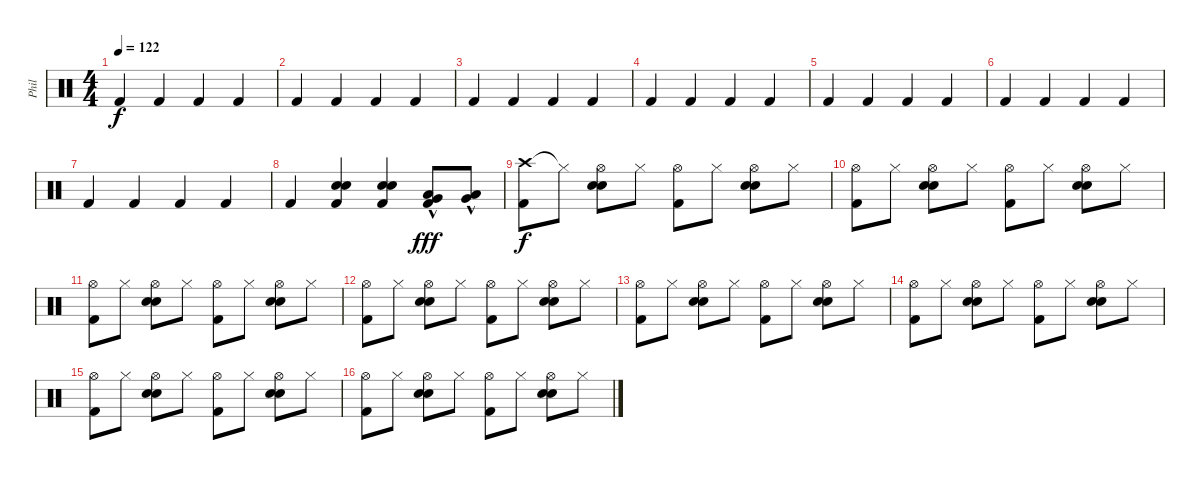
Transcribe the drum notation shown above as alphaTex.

\track ("Phil" "Phil") {instrument percussion}
\staff {score}
\articulation defaults
\ts (4 4)
\tempo 122
\clef neutral
\ks c "Kick (hit) 2".4{dy f} "Kick (hit) 2".4 "Kick (hit) 2".4 "Kick (hit) 2".4
|
"Kick (hit) 2".4 "Kick (hit) 2".4 "Kick (hit) 2".4 "Kick (hit) 2".4 |
"Kick (hit) 2".4 "Kick (hit) 2".4 "Kick (hit) 2".4 "Kick (hit) 2".4 |
"Kick (hit) 2".4 "Kick (hit) 2".4 "Kick (hit) 2".4 "Kick (hit) 2".4 |
"Kick (hit) 2".4 "Kick (hit) 2".4 "Kick (hit) 2".4 "Kick (hit) 2".4 |
"Kick (hit) 2".4 "Kick (hit) 2".4 "Kick (hit) 2".4 "Kick (hit) 2".4 |
"Kick (hit) 2".4 "Kick (hit) 2".4 "Kick (hit) 2".4 "Kick (hit) 2".4 |
"Kick (hit) 2".4 ("Snare (hit) 2" "Electric Snare (hit)" "Kick (hit) 2").4 ("Snare (hit) 2" "Electric Snare (hit)" "Kick (hit) 2").4 ("Very Low Tom (hit)"{hac} "Low Floor Tom (hit)"{hac} "Kick (hit) 2").8{dy fff} ("Very Low Tom (hit)"{hac} "Low Floor Tom (hit)"{hac}).8 |
("Crash high (hit)" "Kick (hit) 2").8{dy f} "Hi-Hat (closed)"{t}.8 ("Hi-Hat (open)" "Snare (hit) 2" "Electric Snare (hit)").8 "Hi-Hat (closed)".8 ("Hi-Hat (open)" "Kick (hit) 2").8 "Hi-Hat (closed)".8 ("Hi-Hat (open)" "Snare (hit) 2" "Electric Snare (hit)").8 "Hi-Hat (closed)".8 |
("Hi-Hat (open)" "Kick (hit) 2").8 "Hi-Hat (closed)".8 ("Hi-Hat (open)" "Snare (hit) 2" "Electric Snare (hit)").8 "Hi-Hat (closed)".8 ("Hi-Hat (open)" "Kick (hit) 2").8 "Hi-Hat (closed)".8 ("Hi-Hat (open)" "Snare (hit) 2" "Electric Snare (hit)").8 "Hi-Hat (closed)".8 |
("Hi-Hat (open)" "Kick (hit) 2").8 "Hi-Hat (closed)".8 ("Hi-Hat (open)" "Snare (hit) 2" "Electric Snare (hit)").8 "Hi-Hat (closed)".8 ("Hi-Hat (open)" "Kick (hit) 2").8 "Hi-Hat (closed)".8 ("Hi-Hat (open)" "Snare (hit) 2" "Electric Snare (hit)").8 "Hi-Hat (closed)".8 |
("Hi-Hat (open)" "Kick (hit) 2").8 "Hi-Hat (closed)".8 ("Hi-Hat (open)" "Snare (hit) 2" "Electric Snare (hit)").8 "Hi-Hat (closed)".8 ("Hi-Hat (open)" "Kick (hit) 2").8 "Hi-Hat (closed)".8 ("Hi-Hat (open)" "Snare (hit) 2" "Electric Snare (hit)").8 "Hi-Hat (closed)".8 |
("Hi-Hat (open)" "Kick (hit) 2").8 "Hi-Hat (closed)".8 ("Hi-Hat (open)" "Snare (hit) 2" "Electric Snare (hit)").8 "Hi-Hat (closed)".8 ("Hi-Hat (open)" "Kick (hit) 2").8 "Hi-Hat (closed)".8 ("Hi-Hat (open)" "Snare (hit) 2" "Electric Snare (hit)").8 "Hi-Hat (closed)".8 |
("Hi-Hat (open)" "Kick (hit) 2").8 "Hi-Hat (closed)".8 ("Hi-Hat (open)" "Snare (hit) 2" "Electric Snare (hit)").8 "Hi-Hat (closed)".8 ("Hi-Hat (open)" "Kick (hit) 2").8 "Hi-Hat (closed)".8 ("Hi-Hat (open)" "Snare (hit) 2" "Electric Snare (hit)").8 "Hi-Hat (closed)".8 |
("Hi-Hat (open)" "Kick (hit) 2").8 "Hi-Hat (closed)".8 ("Hi-Hat (open)" "Snare (hit) 2" "Electric Snare (hit)").8 "Hi-Hat (closed)".8 ("Hi-Hat (open)" "Kick (hit) 2").8 "Hi-Hat (closed)".8 ("Hi-Hat (open)" "Snare (hit) 2" "Electric Snare (hit)").8 "Hi-Hat (closed)".8 |
("Hi-Hat (open)" "Kick (hit) 2").8 "Hi-Hat (closed)".8 ("Hi-Hat (open)" "Snare (hit) 2" "Electric Snare (hit)").8 "Hi-Hat (closed)".8 ("Hi-Hat (open)" "Kick (hit) 2").8 "Hi-Hat (closed)".8 ("Hi-Hat (open)" "Snare (hit) 2" "Electric Snare (hit)").8 "Hi-Hat (closed)".8
